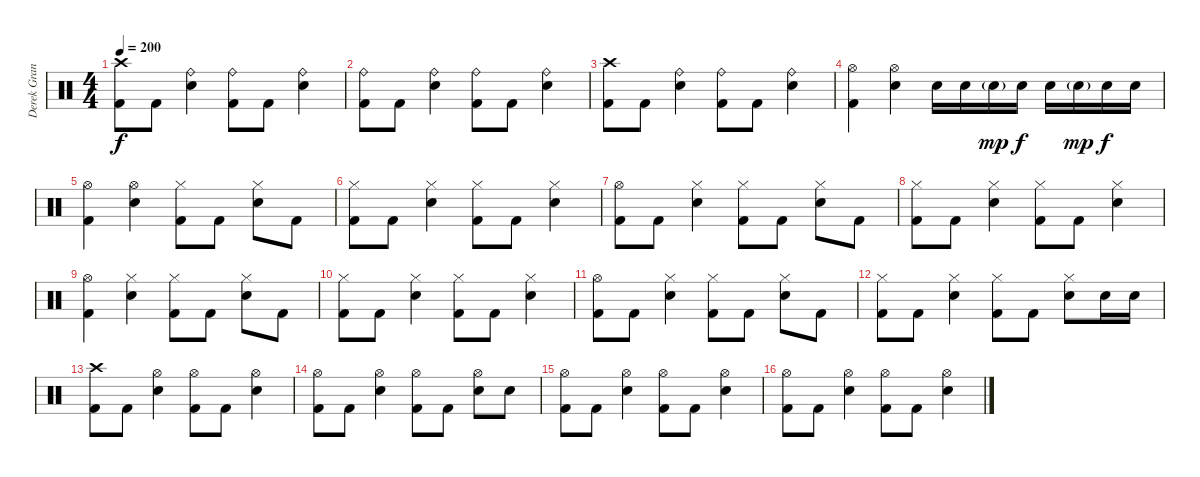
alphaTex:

\track ("Derek Grant" "Derek Gran") {instrument percussion}
\staff {score}
\articulation defaults
\ts (4 4)
\tempo 200
\clef neutral
\ks c
("Crash high (hit)" "Kick (hit) 2").8{dy f} "Kick (hit) 2".8 ("Ride (bell)" "Electric Snare (hit)").4 ("Ride (bell)" "Kick (hit) 2").8 "Kick (hit) 2".8 ("Ride (bell)" "Electric Snare (hit)").4 |
("Ride (bell)" "Kick (hit) 2").8 "Kick (hit) 2".8 ("Ride (bell)" "Electric Snare (hit)").4 ("Ride (bell)" "Kick (hit) 2").8 "Kick (hit) 2".8 ("Ride (bell)" "Electric Snare (hit)").4 |
("Crash high (hit)" "Kick (hit) 2").8 "Kick (hit) 2".8 ("Ride (bell)" "Electric Snare (hit)").4 ("Ride (bell)" "Kick (hit) 2").8 "Kick (hit) 2".8 ("Ride (bell)" "Electric Snare (hit)").4 |
("Hi-Hat (open)" "Kick (hit) 2").4 ("Hi-Hat (open)" "Electric Snare (hit)").4 "Electric Snare (hit)".16 "Electric Snare (hit)".16 "Electric Snare (hit)"{g}.16{dy mp} "Electric Snare (hit)".16{dy f} "Electric Snare (hit)".16 "Electric Snare (hit)"{g}.16{dy mp} "Electric Snare (hit)".16{dy f} "Electric Snare (hit)".16 |
("Hi-Hat (open)" "Kick (hit) 2").4 ("Hi-Hat (open)" "Electric Snare (hit)").4 ("Hi-Hat (closed)" "Kick (hit) 2").8 "Kick (hit) 2".8 ("Hi-Hat (closed)" "Electric Snare (hit)").8 "Kick (hit) 2".8 |
("Hi-Hat (closed)" "Kick (hit) 2").8 "Kick (hit) 2".8 ("Hi-Hat (closed)" "Electric Snare (hit)").4 ("Hi-Hat (closed)" "Kick (hit) 2").8 "Kick (hit) 2".8 ("Hi-Hat (closed)" "Electric Snare (hit)").4 |
("Hi-Hat (open)" "Kick (hit) 2").8 "Kick (hit) 2".8 ("Hi-Hat (closed)" "Electric Snare (hit)").4 ("Hi-Hat (closed)" "Kick (hit) 2").8 "Kick (hit) 2".8 ("Hi-Hat (closed)" "Electric Snare (hit)").8 "Kick (hit) 2".8 |
("Hi-Hat (closed)" "Kick (hit) 2").8 "Kick (hit) 2".8 ("Hi-Hat (closed)" "Electric Snare (hit)").4 ("Hi-Hat (closed)" "Kick (hit) 2").8 "Kick (hit) 2".8 ("Hi-Hat (closed)" "Electric Snare (hit)").4 |
("Hi-Hat (open)" "Kick (hit) 2").4 ("Hi-Hat (closed)" "Electric Snare (hit)").4 ("Hi-Hat (closed)" "Kick (hit) 2").8 "Kick (hit) 2".8 ("Hi-Hat (closed)" "Electric Snare (hit)").8 "Kick (hit) 2".8 |
("Hi-Hat (closed)" "Kick (hit) 2").8 "Kick (hit) 2".8 ("Hi-Hat (closed)" "Electric Snare (hit)").4 ("Hi-Hat (closed)" "Kick (hit) 2").8 "Kick (hit) 2".8 ("Hi-Hat (closed)" "Electric Snare (hit)").4 |
("Hi-Hat (open)" "Kick (hit) 2").8 "Kick (hit) 2".8 ("Hi-Hat (closed)" "Electric Snare (hit)").4 ("Hi-Hat (closed)" "Kick (hit) 2").8 "Kick (hit) 2".8 ("Hi-Hat (closed)" "Electric Snare (hit)").8 "Kick (hit) 2".8 |
("Hi-Hat (closed)" "Kick (hit) 2").8 "Kick (hit) 2".8 ("Hi-Hat (closed)" "Electric Snare (hit)").4 ("Hi-Hat (closed)" "Kick (hit) 2").8 "Kick (hit) 2".8 ("Hi-Hat (closed)" "Electric Snare (hit)").8 "Electric Snare (hit)".16 "Electric Snare (hit)".16 |
("Crash high (hit)" "Kick (hit) 2").8 "Kick (hit) 2".8 ("Hi-Hat (open)" "Electric Snare (hit)").4 ("Hi-Hat (open)" "Kick (hit) 2").8 "Kick (hit) 2".8 ("Hi-Hat (open)" "Electric Snare (hit)").4 |
("Hi-Hat (open)" "Kick (hit) 2").8 "Kick (hit) 2".8 ("Hi-Hat (open)" "Electric Snare (hit)").4 ("Hi-Hat (open)" "Kick (hit) 2").8 "Kick (hit) 2".8 ("Hi-Hat (open)" "Electric Snare (hit)").8 "Electric Snare (hit)".8 |
("Hi-Hat (open)" "Kick (hit) 2").8 "Kick (hit) 2".8 ("Hi-Hat (open)" "Electric Snare (hit)").4 ("Hi-Hat (open)" "Kick (hit) 2").8 "Kick (hit) 2".8 ("Hi-Hat (open)" "Electric Snare (hit)").4 |
("Hi-Hat (open)" "Kick (hit) 2").8 "Kick (hit) 2".8 ("Hi-Hat (open)" "Electric Snare (hit)").4 ("Hi-Hat (open)" "Kick (hit) 2").8 "Kick (hit) 2".8 ("Hi-Hat (open)" "Electric Snare (hit)").4
